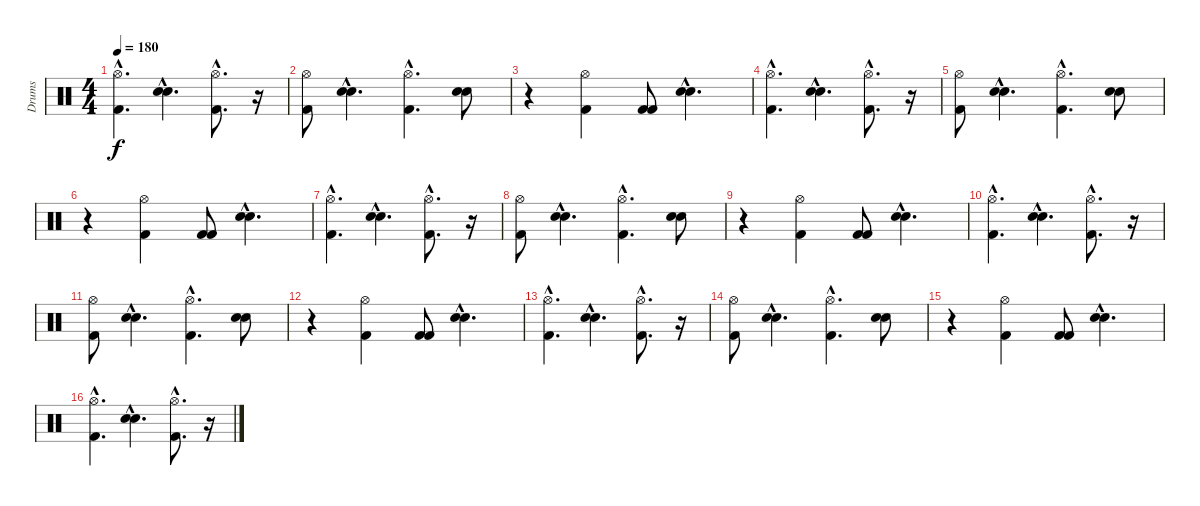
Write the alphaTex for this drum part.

\track ("Drums" "Drums") {instrument percussion}
\staff {score}
\articulation defaults
\ts (4 4)
\tempo 180
\clef neutral
\ks c
("Hi-Hat (open)"{hac} "Kick (hit) 2"{hac}).4{d dy f} ("Snare (hit) 2"{hac} "Electric Snare (hit)"{hac}).4{d} ("Hi-Hat (open)"{hac} "Kick (hit) 2"{hac}).8{d} r.16 |
("Hi-Hat (open)" "Kick (hit) 2").8 ("Snare (hit) 2"{hac} "Electric Snare (hit)"{hac}).4{d} ("Hi-Hat (open)"{hac} "Kick (hit) 2"{hac}).4{d} ("Snare (hit) 2" "Electric Snare (hit)").8 |
r.4 ("Kick (hit) 2" "Hi-Hat (open)").4 ("Kick (hit) 2" "Kick (hit) 2").8 ("Electric Snare (hit)"{hac} "Snare (hit) 2"{hac}).4{d} |
("Hi-Hat (open)"{hac} "Kick (hit) 2"{hac}).4{d} ("Snare (hit) 2"{hac} "Electric Snare (hit)"{hac}).4{d} ("Hi-Hat (open)"{hac} "Kick (hit) 2"{hac}).8{d} r.16 |
("Hi-Hat (open)" "Kick (hit) 2").8 ("Snare (hit) 2"{hac} "Electric Snare (hit)"{hac}).4{d} ("Hi-Hat (open)"{hac} "Kick (hit) 2"{hac}).4{d} ("Snare (hit) 2" "Electric Snare (hit)").8 |
r.4 ("Kick (hit) 2" "Hi-Hat (open)").4 ("Kick (hit) 2" "Kick (hit) 2").8 ("Electric Snare (hit)"{hac} "Snare (hit) 2"{hac}).4{d} |
("Hi-Hat (open)"{hac} "Kick (hit) 2"{hac}).4{d} ("Snare (hit) 2"{hac} "Electric Snare (hit)"{hac}).4{d} ("Hi-Hat (open)"{hac} "Kick (hit) 2"{hac}).8{d} r.16 |
("Hi-Hat (open)" "Kick (hit) 2").8 ("Snare (hit) 2"{hac} "Electric Snare (hit)"{hac}).4{d} ("Hi-Hat (open)"{hac} "Kick (hit) 2"{hac}).4{d} ("Snare (hit) 2" "Electric Snare (hit)").8 |
r.4 ("Kick (hit) 2" "Hi-Hat (open)").4 ("Kick (hit) 2" "Kick (hit) 2").8 ("Electric Snare (hit)"{hac} "Snare (hit) 2"{hac}).4{d} |
("Hi-Hat (open)"{hac} "Kick (hit) 2"{hac}).4{d} ("Snare (hit) 2"{hac} "Electric Snare (hit)"{hac}).4{d} ("Hi-Hat (open)"{hac} "Kick (hit) 2"{hac}).8{d} r.16 |
("Hi-Hat (open)" "Kick (hit) 2").8 ("Snare (hit) 2"{hac} "Electric Snare (hit)"{hac}).4{d} ("Hi-Hat (open)"{hac} "Kick (hit) 2"{hac}).4{d} ("Snare (hit) 2" "Electric Snare (hit)").8 |
r.4 ("Kick (hit) 2" "Hi-Hat (open)").4 ("Kick (hit) 2" "Kick (hit) 2").8 ("Electric Snare (hit)"{hac} "Snare (hit) 2"{hac}).4{d} |
("Hi-Hat (open)"{hac} "Kick (hit) 2"{hac}).4{d} ("Snare (hit) 2"{hac} "Electric Snare (hit)"{hac}).4{d} ("Hi-Hat (open)"{hac} "Kick (hit) 2"{hac}).8{d} r.16 |
("Hi-Hat (open)" "Kick (hit) 2").8 ("Snare (hit) 2"{hac} "Electric Snare (hit)"{hac}).4{d} ("Hi-Hat (open)"{hac} "Kick (hit) 2"{hac}).4{d} ("Snare (hit) 2" "Electric Snare (hit)").8 |
r.4 ("Kick (hit) 2" "Hi-Hat (open)").4 ("Kick (hit) 2" "Kick (hit) 2").8 ("Electric Snare (hit)"{hac} "Snare (hit) 2"{hac}).4{d} |
("Hi-Hat (open)"{hac} "Kick (hit) 2"{hac}).4{d} ("Snare (hit) 2"{hac} "Electric Snare (hit)"{hac}).4{d} ("Hi-Hat (open)"{hac} "Kick (hit) 2"{hac}).8{d} r.16
